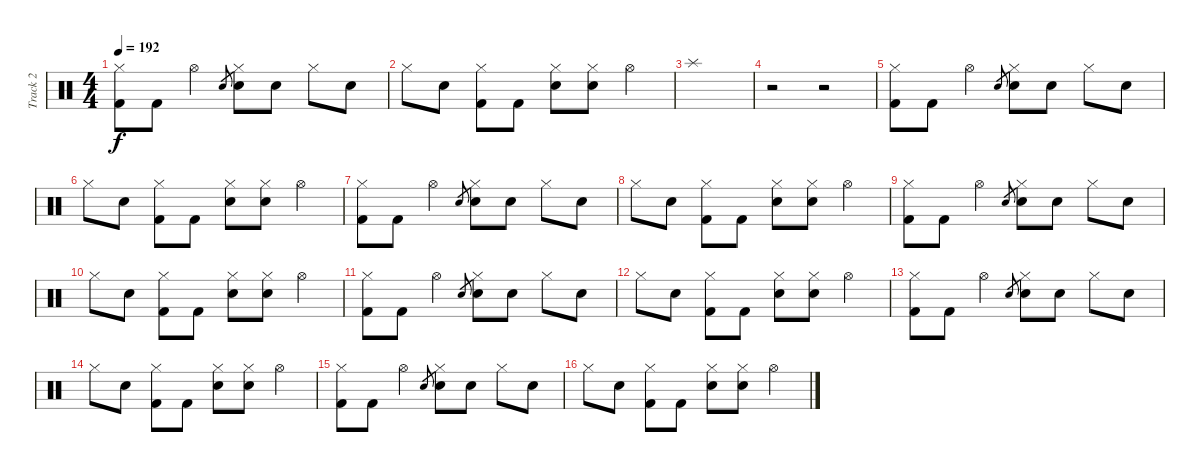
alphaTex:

\track ("Track 2" "Track 2") {instrument percussion}
\staff {score}
\articulation defaults
\ts (4 4)
\tempo 192
\clef neutral
\ks c
("Hi-Hat (closed)" "Kick (hit) 2").8{dy f} "Kick (hit) 2".8 "Hi-Hat (open)".4 "Electric Snare (hit)".8{gr} ("Hi-Hat (closed)" "Electric Snare (hit)").8 "Electric Snare (hit)".8 "Hi-Hat (closed)".8 "Electric Snare (hit)".8 |
"Hi-Hat (closed)".8 "Electric Snare (hit)".8 ("Hi-Hat (closed)" "Kick (hit) 2").8 "Kick (hit) 2".8 ("Hi-Hat (closed)" "Electric Snare (hit)").8 ("Hi-Hat (closed)" "Electric Snare (hit)").8 "Hi-Hat (open)".4 |
"Splash (hit)".1 |
r.2 r.2 |
("Hi-Hat (closed)" "Kick (hit) 2").8 "Kick (hit) 2".8 "Hi-Hat (open)".4 "Electric Snare (hit)".8{gr} ("Hi-Hat (closed)" "Electric Snare (hit)").8 "Electric Snare (hit)".8 "Hi-Hat (closed)".8 "Electric Snare (hit)".8 |
"Hi-Hat (closed)".8 "Electric Snare (hit)".8 ("Hi-Hat (closed)" "Kick (hit) 2").8 "Kick (hit) 2".8 ("Hi-Hat (closed)" "Electric Snare (hit)").8 ("Hi-Hat (closed)" "Electric Snare (hit)").8 "Hi-Hat (open)".4 |
("Hi-Hat (closed)" "Kick (hit) 2").8 "Kick (hit) 2".8 "Hi-Hat (open)".4 "Electric Snare (hit)".8{gr} ("Hi-Hat (closed)" "Electric Snare (hit)").8 "Electric Snare (hit)".8 "Hi-Hat (closed)".8 "Electric Snare (hit)".8 |
"Hi-Hat (closed)".8 "Electric Snare (hit)".8 ("Hi-Hat (closed)" "Kick (hit) 2").8 "Kick (hit) 2".8 ("Hi-Hat (closed)" "Electric Snare (hit)").8 ("Hi-Hat (closed)" "Electric Snare (hit)").8 "Hi-Hat (open)".4 |
("Hi-Hat (closed)" "Kick (hit) 2").8 "Kick (hit) 2".8 "Hi-Hat (open)".4 "Electric Snare (hit)".8{gr} ("Hi-Hat (closed)" "Electric Snare (hit)").8 "Electric Snare (hit)".8 "Hi-Hat (closed)".8 "Electric Snare (hit)".8 |
"Hi-Hat (closed)".8 "Electric Snare (hit)".8 ("Hi-Hat (closed)" "Kick (hit) 2").8 "Kick (hit) 2".8 ("Hi-Hat (closed)" "Electric Snare (hit)").8 ("Hi-Hat (closed)" "Electric Snare (hit)").8 "Hi-Hat (open)".4 |
("Hi-Hat (closed)" "Kick (hit) 2").8 "Kick (hit) 2".8 "Hi-Hat (open)".4 "Electric Snare (hit)".8{gr} ("Hi-Hat (closed)" "Electric Snare (hit)").8 "Electric Snare (hit)".8 "Hi-Hat (closed)".8 "Electric Snare (hit)".8 |
"Hi-Hat (closed)".8 "Electric Snare (hit)".8 ("Hi-Hat (closed)" "Kick (hit) 2").8 "Kick (hit) 2".8 ("Hi-Hat (closed)" "Electric Snare (hit)").8 ("Hi-Hat (closed)" "Electric Snare (hit)").8 "Hi-Hat (open)".4 |
("Hi-Hat (closed)" "Kick (hit) 2").8 "Kick (hit) 2".8 "Hi-Hat (open)".4 "Electric Snare (hit)".8{gr} ("Hi-Hat (closed)" "Electric Snare (hit)").8 "Electric Snare (hit)".8 "Hi-Hat (closed)".8 "Electric Snare (hit)".8 |
"Hi-Hat (closed)".8 "Electric Snare (hit)".8 ("Hi-Hat (closed)" "Kick (hit) 2").8 "Kick (hit) 2".8 ("Hi-Hat (closed)" "Electric Snare (hit)").8 ("Hi-Hat (closed)" "Electric Snare (hit)").8 "Hi-Hat (open)".4 |
("Hi-Hat (closed)" "Kick (hit) 2").8 "Kick (hit) 2".8 "Hi-Hat (open)".4 "Electric Snare (hit)".8{gr} ("Hi-Hat (closed)" "Electric Snare (hit)").8 "Electric Snare (hit)".8 "Hi-Hat (closed)".8 "Electric Snare (hit)".8 |
"Hi-Hat (closed)".8 "Electric Snare (hit)".8 ("Hi-Hat (closed)" "Kick (hit) 2").8 "Kick (hit) 2".8 ("Hi-Hat (closed)" "Electric Snare (hit)").8 ("Hi-Hat (closed)" "Electric Snare (hit)").8 "Hi-Hat (open)".4
